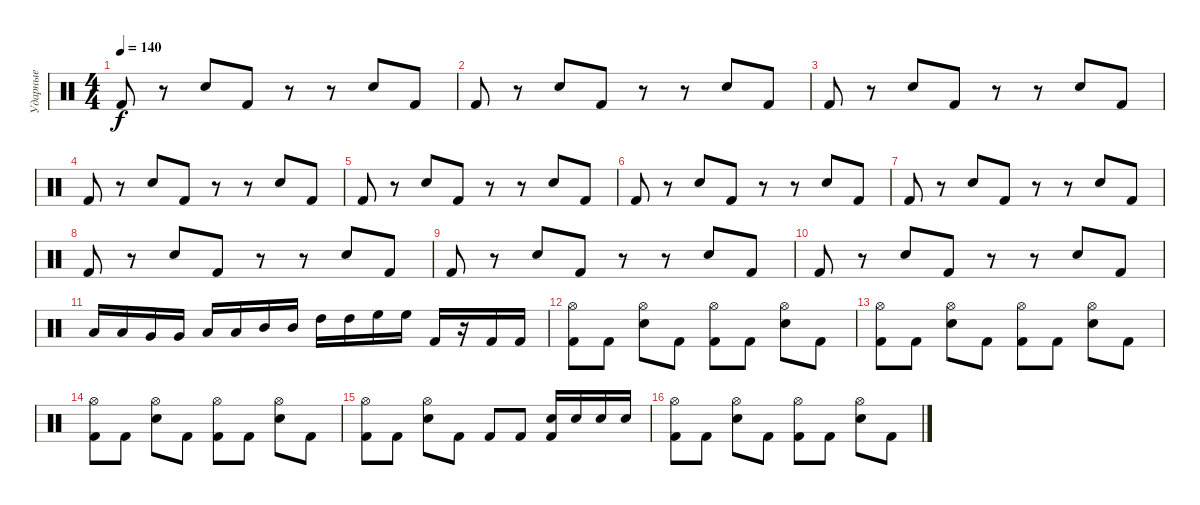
\track ("Ударные" "Ударные") {instrument percussion}
\staff {score}
\articulation defaults
\ts (4 4)
\tempo 140
\clef neutral
\ks c "Kick (hit) 2".8{dy f}
r.8 "Electric Snare (hit)".8 "Kick (hit) 2".8 r.8 r.8 "Electric Snare (hit)".8 "Kick (hit) 2".8 |
"Kick (hit) 2".8 r.8 "Electric Snare (hit)".8 "Kick (hit) 2".8 r.8 r.8 "Electric Snare (hit)".8 "Kick (hit) 2".8 |
"Kick (hit) 2".8 r.8 "Electric Snare (hit)".8 "Kick (hit) 2".8 r.8 r.8 "Electric Snare (hit)".8 "Kick (hit) 2".8 |
"Kick (hit) 2".8 r.8 "Electric Snare (hit)".8 "Kick (hit) 2".8 r.8 r.8 "Electric Snare (hit)".8 "Kick (hit) 2".8 |
"Kick (hit) 2".8 r.8 "Electric Snare (hit)".8 "Kick (hit) 2".8 r.8 r.8 "Electric Snare (hit)".8 "Kick (hit) 2".8 |
"Kick (hit) 2".8 r.8 "Electric Snare (hit)".8 "Kick (hit) 2".8 r.8 r.8 "Electric Snare (hit)".8 "Kick (hit) 2".8 |
"Kick (hit) 2".8 r.8 "Electric Snare (hit)".8 "Kick (hit) 2".8 r.8 r.8 "Electric Snare (hit)".8 "Kick (hit) 2".8 |
"Kick (hit) 2".8 r.8 "Electric Snare (hit)".8 "Kick (hit) 2".8 r.8 r.8 "Electric Snare (hit)".8 "Kick (hit) 2".8 |
"Kick (hit) 2".8 r.8 "Electric Snare (hit)".8 "Kick (hit) 2".8 r.8 r.8 "Electric Snare (hit)".8 "Kick (hit) 2".8 |
"Kick (hit) 2".8 r.8 "Electric Snare (hit)".8 "Kick (hit) 2".8 r.8 r.8 "Electric Snare (hit)".8 "Kick (hit) 2".8 |
"Low Floor Tom (hit)".16 "Low Floor Tom (hit)".16 "Very Low Tom (hit)".16 "Very Low Tom (hit)".16 "Low Tom (hit)".16 "Low Tom (hit)".16 "Mid Tom (hit)".16 "Mid Tom (hit)".16 "High Tom (hit)".16 "High Tom (hit)".16 "High Floor Tom (hit)".16 "High Floor Tom (hit)".16 "Kick (hit) 2".16 r.16 "Kick (hit) 2".16 "Kick (hit) 2".16 |
("Kick (hit) 2" "Hi-Hat (open)").8 "Kick (hit) 2".8 ("Electric Snare (hit)" "Hi-Hat (open)").8 "Kick (hit) 2".8 ("Kick (hit) 2" "Hi-Hat (open)").8 "Kick (hit) 2".8 ("Electric Snare (hit)" "Hi-Hat (open)").8 "Kick (hit) 2".8 |
("Kick (hit) 2" "Hi-Hat (open)").8 "Kick (hit) 2".8 ("Electric Snare (hit)" "Hi-Hat (open)").8 "Kick (hit) 2".8 ("Kick (hit) 2" "Hi-Hat (open)").8 "Kick (hit) 2".8 ("Electric Snare (hit)" "Hi-Hat (open)").8 "Kick (hit) 2".8 |
("Kick (hit) 2" "Hi-Hat (open)").8 "Kick (hit) 2".8 ("Electric Snare (hit)" "Hi-Hat (open)").8 "Kick (hit) 2".8 ("Kick (hit) 2" "Hi-Hat (open)").8 "Kick (hit) 2".8 ("Electric Snare (hit)" "Hi-Hat (open)").8 "Kick (hit) 2".8 |
("Kick (hit) 2" "Hi-Hat (open)").8 "Kick (hit) 2".8 ("Electric Snare (hit)" "Hi-Hat (open)").8 "Kick (hit) 2".8 "Kick (hit) 2".8 "Kick (hit) 2".8 ("Electric Snare (hit)" "Kick (hit) 2").16 "Electric Snare (hit)".16 "Electric Snare (hit)".16 "Electric Snare (hit)".16 |
("Kick (hit) 2" "Hi-Hat (open)").8 "Kick (hit) 2".8 ("Electric Snare (hit)" "Hi-Hat (open)").8 "Kick (hit) 2".8 ("Kick (hit) 2" "Hi-Hat (open)").8 "Kick (hit) 2".8 ("Electric Snare (hit)" "Hi-Hat (open)").8 "Kick (hit) 2".8
